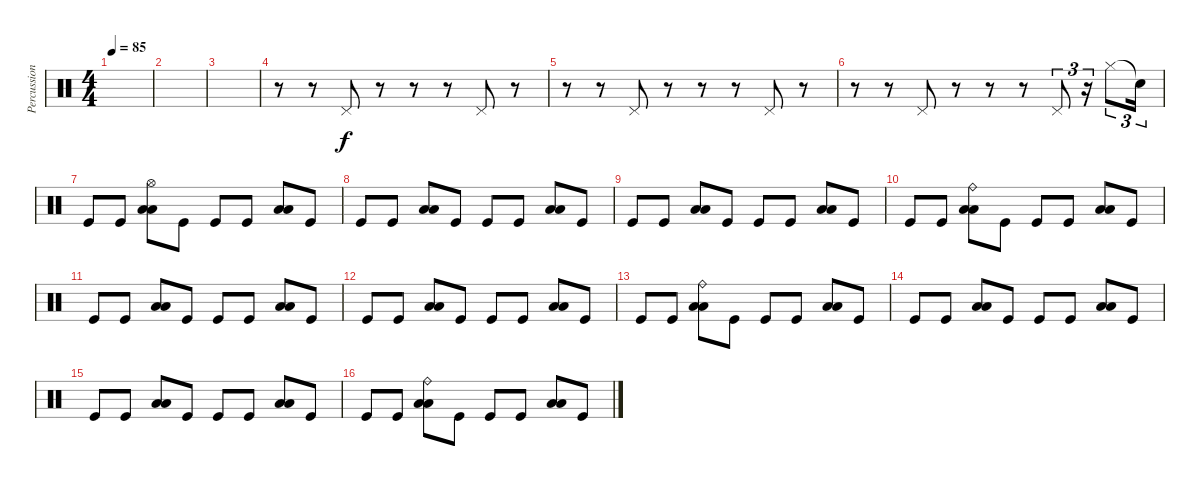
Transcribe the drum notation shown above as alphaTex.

\track ("Percussions" "Percussion") {instrument percussion}
\staff {score}
\articulation defaults
\ts (4 4)
\tempo 85
\clef neutral
\ks c
|
|
|
r.8 r.8 "Pedal Hi-Hat (hit)".8 r.8 r.8 r.8 "Pedal Hi-Hat (hit)".8 r.8 |
r.8 r.8 "Pedal Hi-Hat (hit)".8 r.8 r.8 r.8 "Pedal Hi-Hat (hit)".8 r.8 |
r.8 r.8 "Pedal Hi-Hat (hit)".8 r.8 r.8 r.8 "Pedal Hi-Hat (hit)".8{tu (3 2)} r.16{tu (3 2)} "Hi-Hat (closed)".8{tu (3 2)} "Snare (hit)"{t}.16{tu (3 2)} |
"Kick (hit)".8 "Kick (hit)".8 ("Hi-Hat (open)" "Low Tom (hit)" "Low Floor Tom (hit)").8 "Kick (hit)".8 "Kick (hit)".8 "Kick (hit)".8 ("Low Tom (hit)" "Low Floor Tom (hit)").8 "Kick (hit)".8 |
"Kick (hit)".8 "Kick (hit)".8 ("Low Tom (hit)" "Low Floor Tom (hit)").8 "Kick (hit)".8 "Kick (hit)".8 "Kick (hit)".8 ("Low Tom (hit)" "Low Floor Tom (hit)").8 "Kick (hit)".8 |
"Kick (hit)".8 "Kick (hit)".8 ("Low Tom (hit)" "Low Floor Tom (hit)").8 "Kick (hit)".8 "Kick (hit)".8 "Kick (hit)".8 ("Low Tom (hit)" "Low Floor Tom (hit)").8 "Kick (hit)".8 |
"Kick (hit)".8 "Kick (hit)".8 ("Ride (bell)" "Low Tom (hit)" "Low Floor Tom (hit)").8 "Kick (hit)".8 "Kick (hit)".8 "Kick (hit)".8 ("Low Tom (hit)" "Low Floor Tom (hit)").8 "Kick (hit)".8 |
"Kick (hit)".8 "Kick (hit)".8 ("Low Tom (hit)" "Low Floor Tom (hit)").8 "Kick (hit)".8 "Kick (hit)".8 "Kick (hit)".8 ("Low Tom (hit)" "Low Floor Tom (hit)").8 "Kick (hit)".8 |
"Kick (hit)".8 "Kick (hit)".8 ("Low Tom (hit)" "Low Floor Tom (hit)").8 "Kick (hit)".8 "Kick (hit)".8 "Kick (hit)".8 ("Low Tom (hit)" "Low Floor Tom (hit)").8 "Kick (hit)".8 |
"Kick (hit)".8 "Kick (hit)".8 ("Ride (bell)" "Low Tom (hit)" "Low Floor Tom (hit)").8 "Kick (hit)".8 "Kick (hit)".8 "Kick (hit)".8 ("Low Tom (hit)" "Low Floor Tom (hit)").8 "Kick (hit)".8 |
"Kick (hit)".8 "Kick (hit)".8 ("Low Tom (hit)" "Low Floor Tom (hit)").8 "Kick (hit)".8 "Kick (hit)".8 "Kick (hit)".8 ("Low Tom (hit)" "Low Floor Tom (hit)").8 "Kick (hit)".8 |
"Kick (hit)".8 "Kick (hit)".8 ("Low Tom (hit)" "Low Floor Tom (hit)").8 "Kick (hit)".8 "Kick (hit)".8 "Kick (hit)".8 ("Low Tom (hit)" "Low Floor Tom (hit)").8 "Kick (hit)".8 |
"Kick (hit)".8 "Kick (hit)".8 ("Ride (bell)" "Low Tom (hit)" "Low Floor Tom (hit)").8 "Kick (hit)".8 "Kick (hit)".8 "Kick (hit)".8 ("Low Tom (hit)" "Low Floor Tom (hit)").8 "Kick (hit)".8
